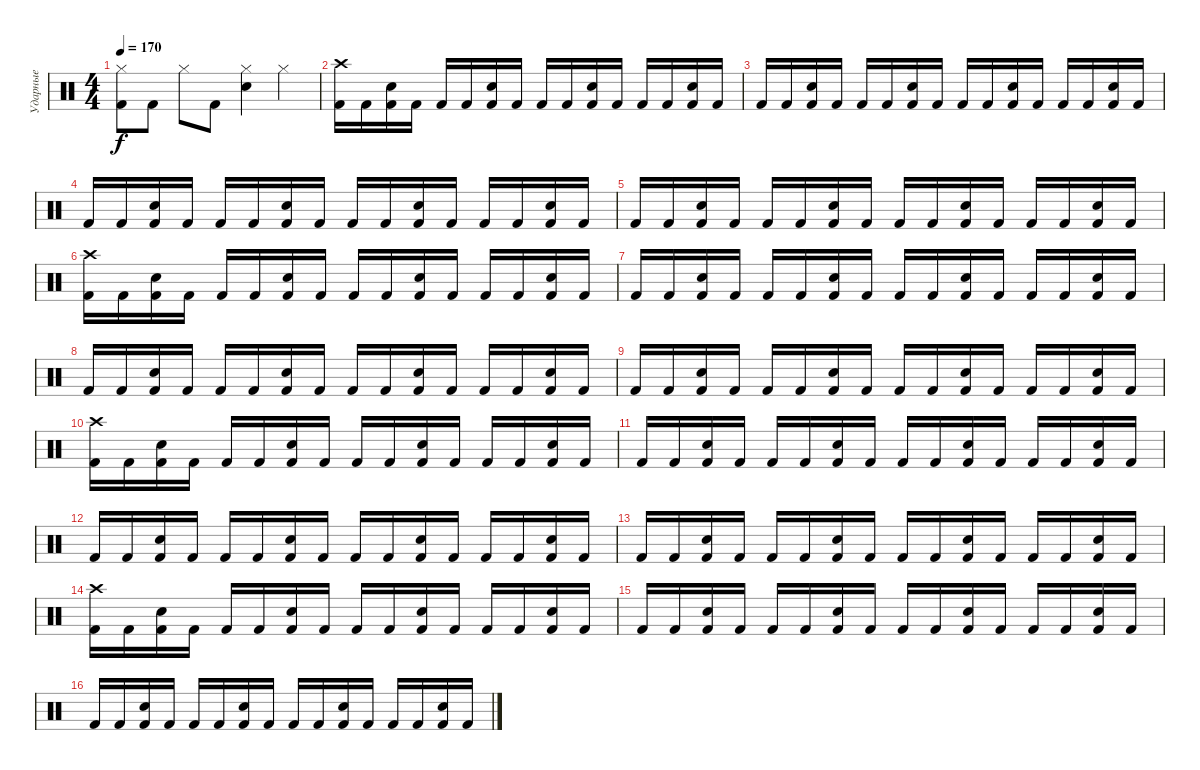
\track ("Ударные" "Ударные") {instrument percussion}
\staff {score}
\articulation defaults
\ts (4 4)
\tempo 170
\clef neutral
\ks c
("Kick (hit) 2" "Hi-Hat (closed)").8{dy f} "Kick (hit) 2".8 "Hi-Hat (closed)".8 "Kick (hit) 2".8 ("Hi-Hat (closed)" "Electric Snare (hit)").4 "Hi-Hat (closed)".4 |
("Kick (hit) 2" "Crash high (hit)").16 "Kick (hit) 2".16 ("Kick (hit) 2" "Electric Snare (hit)").16 "Kick (hit) 2".16 "Kick (hit) 2".16 "Kick (hit) 2".16 ("Kick (hit) 2" "Electric Snare (hit)").16 "Kick (hit) 2".16 "Kick (hit) 2".16 "Kick (hit) 2".16 ("Kick (hit) 2" "Electric Snare (hit)").16 "Kick (hit) 2".16 "Kick (hit) 2".16 "Kick (hit) 2".16 ("Kick (hit) 2" "Electric Snare (hit)").16 "Kick (hit) 2".16 |
"Kick (hit) 2".16 "Kick (hit) 2".16 ("Kick (hit) 2" "Electric Snare (hit)").16 "Kick (hit) 2".16 "Kick (hit) 2".16 "Kick (hit) 2".16 ("Kick (hit) 2" "Electric Snare (hit)").16 "Kick (hit) 2".16 "Kick (hit) 2".16 "Kick (hit) 2".16 ("Kick (hit) 2" "Electric Snare (hit)").16 "Kick (hit) 2".16 "Kick (hit) 2".16 "Kick (hit) 2".16 ("Kick (hit) 2" "Electric Snare (hit)").16 "Kick (hit) 2".16 |
"Kick (hit) 2".16 "Kick (hit) 2".16 ("Kick (hit) 2" "Electric Snare (hit)").16 "Kick (hit) 2".16 "Kick (hit) 2".16 "Kick (hit) 2".16 ("Kick (hit) 2" "Electric Snare (hit)").16 "Kick (hit) 2".16 "Kick (hit) 2".16 "Kick (hit) 2".16 ("Kick (hit) 2" "Electric Snare (hit)").16 "Kick (hit) 2".16 "Kick (hit) 2".16 "Kick (hit) 2".16 ("Kick (hit) 2" "Electric Snare (hit)").16 "Kick (hit) 2".16 |
"Kick (hit) 2".16 "Kick (hit) 2".16 ("Kick (hit) 2" "Electric Snare (hit)").16 "Kick (hit) 2".16 "Kick (hit) 2".16 "Kick (hit) 2".16 ("Kick (hit) 2" "Electric Snare (hit)").16 "Kick (hit) 2".16 "Kick (hit) 2".16 "Kick (hit) 2".16 ("Kick (hit) 2" "Electric Snare (hit)").16 "Kick (hit) 2".16 "Kick (hit) 2".16 "Kick (hit) 2".16 ("Kick (hit) 2" "Electric Snare (hit)").16 "Kick (hit) 2".16 |
("Kick (hit) 2" "Crash high (hit)").16 "Kick (hit) 2".16 ("Kick (hit) 2" "Electric Snare (hit)").16 "Kick (hit) 2".16 "Kick (hit) 2".16 "Kick (hit) 2".16 ("Kick (hit) 2" "Electric Snare (hit)").16 "Kick (hit) 2".16 "Kick (hit) 2".16 "Kick (hit) 2".16 ("Kick (hit) 2" "Electric Snare (hit)").16 "Kick (hit) 2".16 "Kick (hit) 2".16 "Kick (hit) 2".16 ("Kick (hit) 2" "Electric Snare (hit)").16 "Kick (hit) 2".16 |
"Kick (hit) 2".16 "Kick (hit) 2".16 ("Kick (hit) 2" "Electric Snare (hit)").16 "Kick (hit) 2".16 "Kick (hit) 2".16 "Kick (hit) 2".16 ("Kick (hit) 2" "Electric Snare (hit)").16 "Kick (hit) 2".16 "Kick (hit) 2".16 "Kick (hit) 2".16 ("Kick (hit) 2" "Electric Snare (hit)").16 "Kick (hit) 2".16 "Kick (hit) 2".16 "Kick (hit) 2".16 ("Kick (hit) 2" "Electric Snare (hit)").16 "Kick (hit) 2".16 |
"Kick (hit) 2".16 "Kick (hit) 2".16 ("Kick (hit) 2" "Electric Snare (hit)").16 "Kick (hit) 2".16 "Kick (hit) 2".16 "Kick (hit) 2".16 ("Kick (hit) 2" "Electric Snare (hit)").16 "Kick (hit) 2".16 "Kick (hit) 2".16 "Kick (hit) 2".16 ("Kick (hit) 2" "Electric Snare (hit)").16 "Kick (hit) 2".16 "Kick (hit) 2".16 "Kick (hit) 2".16 ("Kick (hit) 2" "Electric Snare (hit)").16 "Kick (hit) 2".16 |
"Kick (hit) 2".16 "Kick (hit) 2".16 ("Kick (hit) 2" "Electric Snare (hit)").16 "Kick (hit) 2".16 "Kick (hit) 2".16 "Kick (hit) 2".16 ("Kick (hit) 2" "Electric Snare (hit)").16 "Kick (hit) 2".16 "Kick (hit) 2".16 "Kick (hit) 2".16 ("Kick (hit) 2" "Electric Snare (hit)").16 "Kick (hit) 2".16 "Kick (hit) 2".16 "Kick (hit) 2".16 ("Kick (hit) 2" "Electric Snare (hit)").16 "Kick (hit) 2".16 |
("Kick (hit) 2" "Crash high (hit)").16 "Kick (hit) 2".16 ("Kick (hit) 2" "Electric Snare (hit)").16 "Kick (hit) 2".16 "Kick (hit) 2".16 "Kick (hit) 2".16 ("Kick (hit) 2" "Electric Snare (hit)").16 "Kick (hit) 2".16 "Kick (hit) 2".16 "Kick (hit) 2".16 ("Kick (hit) 2" "Electric Snare (hit)").16 "Kick (hit) 2".16 "Kick (hit) 2".16 "Kick (hit) 2".16 ("Kick (hit) 2" "Electric Snare (hit)").16 "Kick (hit) 2".16 |
"Kick (hit) 2".16 "Kick (hit) 2".16 ("Kick (hit) 2" "Electric Snare (hit)").16 "Kick (hit) 2".16 "Kick (hit) 2".16 "Kick (hit) 2".16 ("Kick (hit) 2" "Electric Snare (hit)").16 "Kick (hit) 2".16 "Kick (hit) 2".16 "Kick (hit) 2".16 ("Kick (hit) 2" "Electric Snare (hit)").16 "Kick (hit) 2".16 "Kick (hit) 2".16 "Kick (hit) 2".16 ("Kick (hit) 2" "Electric Snare (hit)").16 "Kick (hit) 2".16 |
"Kick (hit) 2".16 "Kick (hit) 2".16 ("Kick (hit) 2" "Electric Snare (hit)").16 "Kick (hit) 2".16 "Kick (hit) 2".16 "Kick (hit) 2".16 ("Kick (hit) 2" "Electric Snare (hit)").16 "Kick (hit) 2".16 "Kick (hit) 2".16 "Kick (hit) 2".16 ("Kick (hit) 2" "Electric Snare (hit)").16 "Kick (hit) 2".16 "Kick (hit) 2".16 "Kick (hit) 2".16 ("Kick (hit) 2" "Electric Snare (hit)").16 "Kick (hit) 2".16 |
"Kick (hit) 2".16 "Kick (hit) 2".16 ("Kick (hit) 2" "Electric Snare (hit)").16 "Kick (hit) 2".16 "Kick (hit) 2".16 "Kick (hit) 2".16 ("Kick (hit) 2" "Electric Snare (hit)").16 "Kick (hit) 2".16 "Kick (hit) 2".16 "Kick (hit) 2".16 ("Kick (hit) 2" "Electric Snare (hit)").16 "Kick (hit) 2".16 "Kick (hit) 2".16 "Kick (hit) 2".16 ("Kick (hit) 2" "Electric Snare (hit)").16 "Kick (hit) 2".16 |
("Kick (hit) 2" "Crash high (hit)").16 "Kick (hit) 2".16 ("Kick (hit) 2" "Electric Snare (hit)").16 "Kick (hit) 2".16 "Kick (hit) 2".16 "Kick (hit) 2".16 ("Kick (hit) 2" "Electric Snare (hit)").16 "Kick (hit) 2".16 "Kick (hit) 2".16 "Kick (hit) 2".16 ("Kick (hit) 2" "Electric Snare (hit)").16 "Kick (hit) 2".16 "Kick (hit) 2".16 "Kick (hit) 2".16 ("Kick (hit) 2" "Electric Snare (hit)").16 "Kick (hit) 2".16 |
"Kick (hit) 2".16 "Kick (hit) 2".16 ("Kick (hit) 2" "Electric Snare (hit)").16 "Kick (hit) 2".16 "Kick (hit) 2".16 "Kick (hit) 2".16 ("Kick (hit) 2" "Electric Snare (hit)").16 "Kick (hit) 2".16 "Kick (hit) 2".16 "Kick (hit) 2".16 ("Kick (hit) 2" "Electric Snare (hit)").16 "Kick (hit) 2".16 "Kick (hit) 2".16 "Kick (hit) 2".16 ("Kick (hit) 2" "Electric Snare (hit)").16 "Kick (hit) 2".16 |
"Kick (hit) 2".16 "Kick (hit) 2".16 ("Kick (hit) 2" "Electric Snare (hit)").16 "Kick (hit) 2".16 "Kick (hit) 2".16 "Kick (hit) 2".16 ("Kick (hit) 2" "Electric Snare (hit)").16 "Kick (hit) 2".16 "Kick (hit) 2".16 "Kick (hit) 2".16 ("Kick (hit) 2" "Electric Snare (hit)").16 "Kick (hit) 2".16 "Kick (hit) 2".16 "Kick (hit) 2".16 ("Kick (hit) 2" "Electric Snare (hit)").16 "Kick (hit) 2".16
